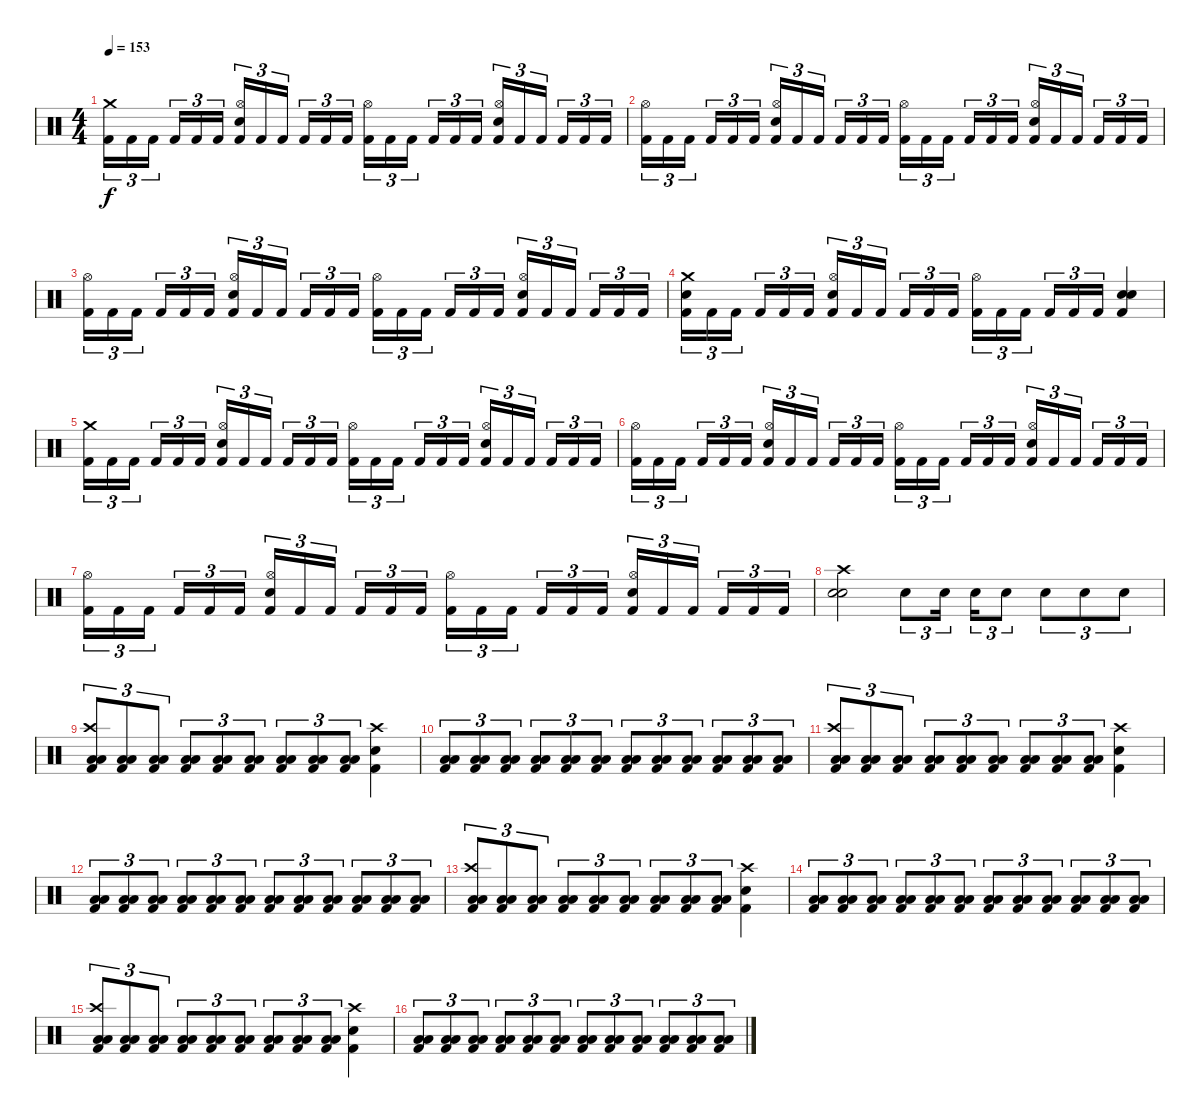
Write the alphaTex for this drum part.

\track "" {instrument percussion}
\staff {score}
\articulation defaults
\ts (4 4)
\tempo 153
\clef neutral
\ks c
("Crash medium (hit)" "Kick (hit) 2").16{tu (3 2) dy f} "Kick (hit) 2".16{tu (3 2)} "Kick (hit) 2".16{tu (3 2)} "Kick (hit) 2".16{tu (3 2)} "Kick (hit) 2".16{tu (3 2)} "Kick (hit) 2".16{tu (3 2)} ("Hi-Hat (open)" "Electric Snare (hit)" "Kick (hit) 2").16{tu (3 2)} "Kick (hit) 2".16{tu (3 2)} "Kick (hit) 2".16{tu (3 2)} "Kick (hit) 2".16{tu (3 2)} "Kick (hit) 2".16{tu (3 2)} "Kick (hit) 2".16{tu (3 2)} ("Hi-Hat (open)" "Kick (hit) 2").16{tu (3 2)} "Kick (hit) 2".16{tu (3 2)} "Kick (hit) 2".16{tu (3 2)} "Kick (hit) 2".16{tu (3 2)} "Kick (hit) 2".16{tu (3 2)} "Kick (hit) 2".16{tu (3 2)} ("Hi-Hat (open)" "Electric Snare (hit)" "Kick (hit) 2").16{tu (3 2)} "Kick (hit) 2".16{tu (3 2)} "Kick (hit) 2".16{tu (3 2)} "Kick (hit) 2".16{tu (3 2)} "Kick (hit) 2".16{tu (3 2)} "Kick (hit) 2".16{tu (3 2)} |
("Hi-Hat (open)" "Kick (hit) 2").16{tu (3 2)} "Kick (hit) 2".16{tu (3 2)} "Kick (hit) 2".16{tu (3 2)} "Kick (hit) 2".16{tu (3 2)} "Kick (hit) 2".16{tu (3 2)} "Kick (hit) 2".16{tu (3 2)} ("Hi-Hat (open)" "Electric Snare (hit)" "Kick (hit) 2").16{tu (3 2)} "Kick (hit) 2".16{tu (3 2)} "Kick (hit) 2".16{tu (3 2)} "Kick (hit) 2".16{tu (3 2)} "Kick (hit) 2".16{tu (3 2)} "Kick (hit) 2".16{tu (3 2)} ("Hi-Hat (open)" "Kick (hit) 2").16{tu (3 2)} "Kick (hit) 2".16{tu (3 2)} "Kick (hit) 2".16{tu (3 2)} "Kick (hit) 2".16{tu (3 2)} "Kick (hit) 2".16{tu (3 2)} "Kick (hit) 2".16{tu (3 2)} ("Hi-Hat (open)" "Electric Snare (hit)" "Kick (hit) 2").16{tu (3 2)} "Kick (hit) 2".16{tu (3 2)} "Kick (hit) 2".16{tu (3 2)} "Kick (hit) 2".16{tu (3 2)} "Kick (hit) 2".16{tu (3 2)} "Kick (hit) 2".16{tu (3 2)} |
("Hi-Hat (open)" "Kick (hit) 2").16{tu (3 2)} "Kick (hit) 2".16{tu (3 2)} "Kick (hit) 2".16{tu (3 2)} "Kick (hit) 2".16{tu (3 2)} "Kick (hit) 2".16{tu (3 2)} "Kick (hit) 2".16{tu (3 2)} ("Hi-Hat (open)" "Electric Snare (hit)" "Kick (hit) 2").16{tu (3 2)} "Kick (hit) 2".16{tu (3 2)} "Kick (hit) 2".16{tu (3 2)} "Kick (hit) 2".16{tu (3 2)} "Kick (hit) 2".16{tu (3 2)} "Kick (hit) 2".16{tu (3 2)} ("Hi-Hat (open)" "Kick (hit) 2").16{tu (3 2)} "Kick (hit) 2".16{tu (3 2)} "Kick (hit) 2".16{tu (3 2)} "Kick (hit) 2".16{tu (3 2)} "Kick (hit) 2".16{tu (3 2)} "Kick (hit) 2".16{tu (3 2)} ("Hi-Hat (open)" "Electric Snare (hit)" "Kick (hit) 2").16{tu (3 2)} "Kick (hit) 2".16{tu (3 2)} "Kick (hit) 2".16{tu (3 2)} "Kick (hit) 2".16{tu (3 2)} "Kick (hit) 2".16{tu (3 2)} "Kick (hit) 2".16{tu (3 2)} |
("Crash medium (hit)" "Electric Snare (hit)" "Kick (hit) 2").16{tu (3 2)} "Kick (hit) 2".16{tu (3 2)} "Kick (hit) 2".16{tu (3 2)} "Kick (hit) 2".16{tu (3 2)} "Kick (hit) 2".16{tu (3 2)} "Kick (hit) 2".16{tu (3 2)} ("Hi-Hat (open)" "Electric Snare (hit)" "Kick (hit) 2").16{tu (3 2)} "Kick (hit) 2".16{tu (3 2)} "Kick (hit) 2".16{tu (3 2)} "Kick (hit) 2".16{tu (3 2)} "Kick (hit) 2".16{tu (3 2)} "Kick (hit) 2".16{tu (3 2)} ("Hi-Hat (open)" "Kick (hit) 2").16{tu (3 2)} "Kick (hit) 2".16{tu (3 2)} "Kick (hit) 2".16{tu (3 2)} "Kick (hit) 2".16{tu (3 2)} "Kick (hit) 2".16{tu (3 2)} "Kick (hit) 2".16{tu (3 2)} ("Electric Snare (hit)" "Electric Snare (hit)" "Kick (hit) 2").4 |
("Crash medium (hit)" "Kick (hit) 2").16{tu (3 2)} "Kick (hit) 2".16{tu (3 2)} "Kick (hit) 2".16{tu (3 2)} "Kick (hit) 2".16{tu (3 2)} "Kick (hit) 2".16{tu (3 2)} "Kick (hit) 2".16{tu (3 2)} ("Hi-Hat (open)" "Electric Snare (hit)" "Kick (hit) 2").16{tu (3 2)} "Kick (hit) 2".16{tu (3 2)} "Kick (hit) 2".16{tu (3 2)} "Kick (hit) 2".16{tu (3 2)} "Kick (hit) 2".16{tu (3 2)} "Kick (hit) 2".16{tu (3 2)} ("Hi-Hat (open)" "Kick (hit) 2").16{tu (3 2)} "Kick (hit) 2".16{tu (3 2)} "Kick (hit) 2".16{tu (3 2)} "Kick (hit) 2".16{tu (3 2)} "Kick (hit) 2".16{tu (3 2)} "Kick (hit) 2".16{tu (3 2)} ("Hi-Hat (open)" "Electric Snare (hit)" "Kick (hit) 2").16{tu (3 2)} "Kick (hit) 2".16{tu (3 2)} "Kick (hit) 2".16{tu (3 2)} "Kick (hit) 2".16{tu (3 2)} "Kick (hit) 2".16{tu (3 2)} "Kick (hit) 2".16{tu (3 2)} |
("Hi-Hat (open)" "Kick (hit) 2").16{tu (3 2)} "Kick (hit) 2".16{tu (3 2)} "Kick (hit) 2".16{tu (3 2)} "Kick (hit) 2".16{tu (3 2)} "Kick (hit) 2".16{tu (3 2)} "Kick (hit) 2".16{tu (3 2)} ("Hi-Hat (open)" "Electric Snare (hit)" "Kick (hit) 2").16{tu (3 2)} "Kick (hit) 2".16{tu (3 2)} "Kick (hit) 2".16{tu (3 2)} "Kick (hit) 2".16{tu (3 2)} "Kick (hit) 2".16{tu (3 2)} "Kick (hit) 2".16{tu (3 2)} ("Hi-Hat (open)" "Kick (hit) 2").16{tu (3 2)} "Kick (hit) 2".16{tu (3 2)} "Kick (hit) 2".16{tu (3 2)} "Kick (hit) 2".16{tu (3 2)} "Kick (hit) 2".16{tu (3 2)} "Kick (hit) 2".16{tu (3 2)} ("Hi-Hat (open)" "Electric Snare (hit)" "Kick (hit) 2").16{tu (3 2)} "Kick (hit) 2".16{tu (3 2)} "Kick (hit) 2".16{tu (3 2)} "Kick (hit) 2".16{tu (3 2)} "Kick (hit) 2".16{tu (3 2)} "Kick (hit) 2".16{tu (3 2)} |
("Hi-Hat (open)" "Kick (hit) 2").16{tu (3 2)} "Kick (hit) 2".16{tu (3 2)} "Kick (hit) 2".16{tu (3 2)} "Kick (hit) 2".16{tu (3 2)} "Kick (hit) 2".16{tu (3 2)} "Kick (hit) 2".16{tu (3 2)} ("Hi-Hat (open)" "Electric Snare (hit)" "Kick (hit) 2").16{tu (3 2)} "Kick (hit) 2".16{tu (3 2)} "Kick (hit) 2".16{tu (3 2)} "Kick (hit) 2".16{tu (3 2)} "Kick (hit) 2".16{tu (3 2)} "Kick (hit) 2".16{tu (3 2)} ("Hi-Hat (open)" "Kick (hit) 2").16{tu (3 2)} "Kick (hit) 2".16{tu (3 2)} "Kick (hit) 2".16{tu (3 2)} "Kick (hit) 2".16{tu (3 2)} "Kick (hit) 2".16{tu (3 2)} "Kick (hit) 2".16{tu (3 2)} ("Hi-Hat (open)" "Electric Snare (hit)" "Kick (hit) 2").16{tu (3 2)} "Kick (hit) 2".16{tu (3 2)} "Kick (hit) 2".16{tu (3 2)} "Kick (hit) 2".16{tu (3 2)} "Kick (hit) 2".16{tu (3 2)} "Kick (hit) 2".16{tu (3 2)} |
("Crash high (hit)" "Electric Snare (hit)" "Electric Snare (hit)").2 "Electric Snare (hit)".8{tu (3 2)} "Electric Snare (hit)".16{tu (3 2)} "Electric Snare (hit)".16{tu (3 2)} "Electric Snare (hit)".8{tu (3 2)} "Electric Snare (hit)".8{tu (3 2)} "Electric Snare (hit)".8{tu (3 2)} "Electric Snare (hit)".8{tu (3 2)} |
("Crash high (hit)" "Low Floor Tom (hit)" "Low Tom (hit)" "Kick (hit) 2").8{tu (3 2)} ("Low Floor Tom (hit)" "Low Tom (hit)" "Kick (hit) 2").8{tu (3 2)} ("Low Floor Tom (hit)" "Low Tom (hit)" "Kick (hit) 2").8{tu (3 2)} ("Low Floor Tom (hit)" "Low Tom (hit)" "Kick (hit) 2").8{tu (3 2)} ("Low Floor Tom (hit)" "Low Tom (hit)" "Kick (hit) 2").8{tu (3 2)} ("Low Floor Tom (hit)" "Low Tom (hit)" "Kick (hit) 2").8{tu (3 2)} ("Low Floor Tom (hit)" "Low Tom (hit)" "Kick (hit) 2").8{tu (3 2)} ("Low Floor Tom (hit)" "Low Tom (hit)" "Kick (hit) 2").8{tu (3 2)} ("Low Floor Tom (hit)" "Low Tom (hit)" "Kick (hit) 2").8{tu (3 2)} ("Crash high (hit)" "Electric Snare (hit)" "Kick (hit) 2").4 |
("Low Floor Tom (hit)" "Low Tom (hit)" "Kick (hit) 2").8{tu (3 2)} ("Low Floor Tom (hit)" "Low Tom (hit)" "Kick (hit) 2").8{tu (3 2)} ("Low Floor Tom (hit)" "Low Tom (hit)" "Kick (hit) 2").8{tu (3 2)} ("Low Floor Tom (hit)" "Low Tom (hit)" "Kick (hit) 2").8{tu (3 2)} ("Low Floor Tom (hit)" "Low Tom (hit)" "Kick (hit) 2").8{tu (3 2)} ("Low Floor Tom (hit)" "Low Tom (hit)" "Kick (hit) 2").8{tu (3 2)} ("Low Floor Tom (hit)" "Low Tom (hit)" "Kick (hit) 2").8{tu (3 2)} ("Low Floor Tom (hit)" "Low Tom (hit)" "Kick (hit) 2").8{tu (3 2)} ("Low Floor Tom (hit)" "Low Tom (hit)" "Kick (hit) 2").8{tu (3 2)} ("Low Floor Tom (hit)" "Low Tom (hit)" "Kick (hit) 2").8{tu (3 2)} ("Low Floor Tom (hit)" "Low Tom (hit)" "Kick (hit) 2").8{tu (3 2)} ("Low Floor Tom (hit)" "Low Tom (hit)" "Kick (hit) 2").8{tu (3 2)} |
("Crash high (hit)" "Low Floor Tom (hit)" "Low Tom (hit)" "Kick (hit) 2").8{tu (3 2)} ("Low Floor Tom (hit)" "Low Tom (hit)" "Kick (hit) 2").8{tu (3 2)} ("Low Floor Tom (hit)" "Low Tom (hit)" "Kick (hit) 2").8{tu (3 2)} ("Low Floor Tom (hit)" "Low Tom (hit)" "Kick (hit) 2").8{tu (3 2)} ("Low Floor Tom (hit)" "Low Tom (hit)" "Kick (hit) 2").8{tu (3 2)} ("Low Floor Tom (hit)" "Low Tom (hit)" "Kick (hit) 2").8{tu (3 2)} ("Low Floor Tom (hit)" "Low Tom (hit)" "Kick (hit) 2").8{tu (3 2)} ("Low Floor Tom (hit)" "Low Tom (hit)" "Kick (hit) 2").8{tu (3 2)} ("Low Floor Tom (hit)" "Low Tom (hit)" "Kick (hit) 2").8{tu (3 2)} ("Crash high (hit)" "Electric Snare (hit)" "Kick (hit) 2").4 |
("Low Floor Tom (hit)" "Low Tom (hit)" "Kick (hit) 2").8{tu (3 2)} ("Low Floor Tom (hit)" "Low Tom (hit)" "Kick (hit) 2").8{tu (3 2)} ("Low Floor Tom (hit)" "Low Tom (hit)" "Kick (hit) 2").8{tu (3 2)} ("Low Floor Tom (hit)" "Low Tom (hit)" "Kick (hit) 2").8{tu (3 2)} ("Low Floor Tom (hit)" "Low Tom (hit)" "Kick (hit) 2").8{tu (3 2)} ("Low Floor Tom (hit)" "Low Tom (hit)" "Kick (hit) 2").8{tu (3 2)} ("Low Floor Tom (hit)" "Low Tom (hit)" "Kick (hit) 2").8{tu (3 2)} ("Low Floor Tom (hit)" "Low Tom (hit)" "Kick (hit) 2").8{tu (3 2)} ("Low Floor Tom (hit)" "Low Tom (hit)" "Kick (hit) 2").8{tu (3 2)} ("Low Floor Tom (hit)" "Low Tom (hit)" "Kick (hit) 2").8{tu (3 2)} ("Low Floor Tom (hit)" "Low Tom (hit)" "Kick (hit) 2").8{tu (3 2)} ("Low Floor Tom (hit)" "Low Tom (hit)" "Kick (hit) 2").8{tu (3 2)} |
("Crash high (hit)" "Low Floor Tom (hit)" "Low Tom (hit)" "Kick (hit) 2").8{tu (3 2)} ("Low Floor Tom (hit)" "Low Tom (hit)" "Kick (hit) 2").8{tu (3 2)} ("Low Floor Tom (hit)" "Low Tom (hit)" "Kick (hit) 2").8{tu (3 2)} ("Low Floor Tom (hit)" "Low Tom (hit)" "Kick (hit) 2").8{tu (3 2)} ("Low Floor Tom (hit)" "Low Tom (hit)" "Kick (hit) 2").8{tu (3 2)} ("Low Floor Tom (hit)" "Low Tom (hit)" "Kick (hit) 2").8{tu (3 2)} ("Low Floor Tom (hit)" "Low Tom (hit)" "Kick (hit) 2").8{tu (3 2)} ("Low Floor Tom (hit)" "Low Tom (hit)" "Kick (hit) 2").8{tu (3 2)} ("Low Floor Tom (hit)" "Low Tom (hit)" "Kick (hit) 2").8{tu (3 2)} ("Crash high (hit)" "Electric Snare (hit)" "Kick (hit) 2").4 |
("Low Floor Tom (hit)" "Low Tom (hit)" "Kick (hit) 2").8{tu (3 2)} ("Low Floor Tom (hit)" "Low Tom (hit)" "Kick (hit) 2").8{tu (3 2)} ("Low Floor Tom (hit)" "Low Tom (hit)" "Kick (hit) 2").8{tu (3 2)} ("Low Floor Tom (hit)" "Low Tom (hit)" "Kick (hit) 2").8{tu (3 2)} ("Low Floor Tom (hit)" "Low Tom (hit)" "Kick (hit) 2").8{tu (3 2)} ("Low Floor Tom (hit)" "Low Tom (hit)" "Kick (hit) 2").8{tu (3 2)} ("Low Floor Tom (hit)" "Low Tom (hit)" "Kick (hit) 2").8{tu (3 2)} ("Low Floor Tom (hit)" "Low Tom (hit)" "Kick (hit) 2").8{tu (3 2)} ("Low Floor Tom (hit)" "Low Tom (hit)" "Kick (hit) 2").8{tu (3 2)} ("Low Floor Tom (hit)" "Low Tom (hit)" "Kick (hit) 2").8{tu (3 2)} ("Low Floor Tom (hit)" "Low Tom (hit)" "Kick (hit) 2").8{tu (3 2)} ("Low Floor Tom (hit)" "Low Tom (hit)" "Kick (hit) 2").8{tu (3 2)} |
("Crash high (hit)" "Low Floor Tom (hit)" "Low Tom (hit)" "Kick (hit) 2").8{tu (3 2)} ("Low Floor Tom (hit)" "Low Tom (hit)" "Kick (hit) 2").8{tu (3 2)} ("Low Floor Tom (hit)" "Low Tom (hit)" "Kick (hit) 2").8{tu (3 2)} ("Low Floor Tom (hit)" "Low Tom (hit)" "Kick (hit) 2").8{tu (3 2)} ("Low Floor Tom (hit)" "Low Tom (hit)" "Kick (hit) 2").8{tu (3 2)} ("Low Floor Tom (hit)" "Low Tom (hit)" "Kick (hit) 2").8{tu (3 2)} ("Low Floor Tom (hit)" "Low Tom (hit)" "Kick (hit) 2").8{tu (3 2)} ("Low Floor Tom (hit)" "Low Tom (hit)" "Kick (hit) 2").8{tu (3 2)} ("Low Floor Tom (hit)" "Low Tom (hit)" "Kick (hit) 2").8{tu (3 2)} ("Crash high (hit)" "Electric Snare (hit)" "Kick (hit) 2").4 |
("Low Floor Tom (hit)" "Low Tom (hit)" "Kick (hit) 2").8{tu (3 2)} ("Low Floor Tom (hit)" "Low Tom (hit)" "Kick (hit) 2").8{tu (3 2)} ("Low Floor Tom (hit)" "Low Tom (hit)" "Kick (hit) 2").8{tu (3 2)} ("Low Floor Tom (hit)" "Low Tom (hit)" "Kick (hit) 2").8{tu (3 2)} ("Low Floor Tom (hit)" "Low Tom (hit)" "Kick (hit) 2").8{tu (3 2)} ("Low Floor Tom (hit)" "Low Tom (hit)" "Kick (hit) 2").8{tu (3 2)} ("Low Floor Tom (hit)" "Low Tom (hit)" "Kick (hit) 2").8{tu (3 2)} ("Low Floor Tom (hit)" "Low Tom (hit)" "Kick (hit) 2").8{tu (3 2)} ("Low Floor Tom (hit)" "Low Tom (hit)" "Kick (hit) 2").8{tu (3 2)} ("Low Floor Tom (hit)" "Low Tom (hit)" "Kick (hit) 2").8{tu (3 2)} ("Low Floor Tom (hit)" "Low Tom (hit)" "Kick (hit) 2").8{tu (3 2)} ("Low Floor Tom (hit)" "Low Tom (hit)" "Kick (hit) 2").8{tu (3 2)}
